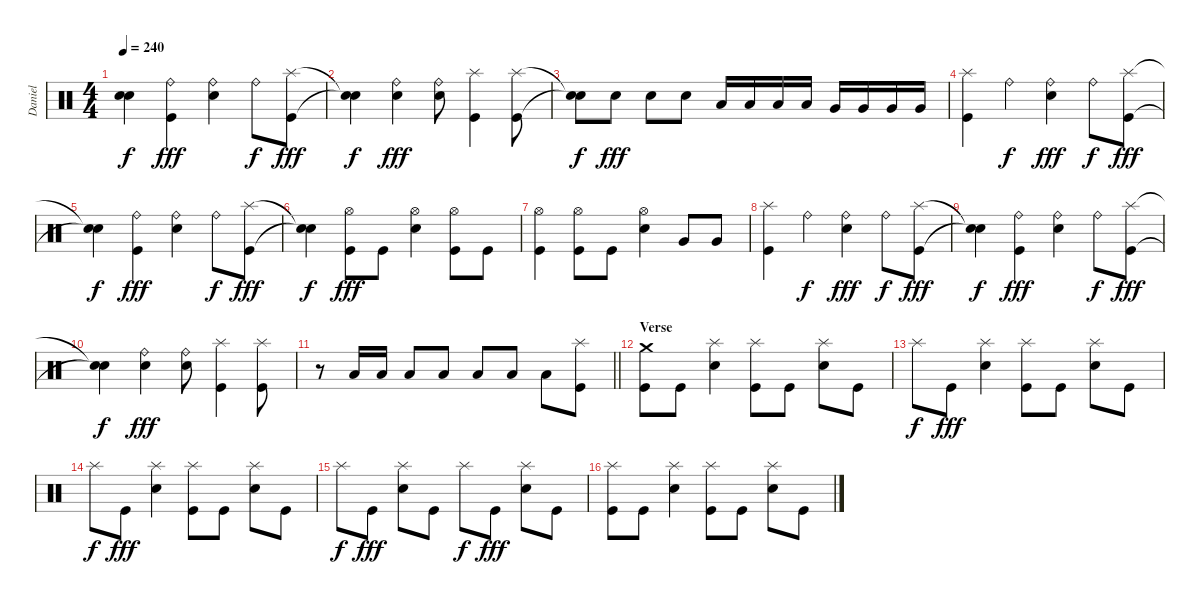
\track ("Daniel" "Daniel") {instrument percussion}
\staff {score}
\articulation defaults
\ts (4 4)
\tempo 240
\clef neutral
\ks c
("Snare (hit)"{t} "Snare (hit)"{t}).4{dy f} ("Kick (hit)" "Ride (bell)").4{dy fff} ("Electric Snare (hit)" "Ride (bell)").4 "Ride (bell)".8{dy f} ("Kick (hit)" "Splash (hit)").8{dy fff} |
("Snare (hit)"{t} "Snare (hit)"{t}).4{dy f} ("Electric Snare (hit)" "Ride (bell)").4{dy fff} ("Electric Snare (hit)" "Ride (bell)").8 ("Kick (hit)" "Splash (hit)").4 ("Kick (hit)" "Splash (hit)").8 |
("Snare (hit)"{t} "Snare (hit)"{t}).8{dy f} "Electric Snare (hit)".8{dy fff} "Electric Snare (hit)".8 "Electric Snare (hit)".8 "Low Tom (hit)".16 "Low Tom (hit)".16 "Low Tom (hit)".16 "Low Tom (hit)".16 "Very Low Tom (hit)".16 "Very Low Tom (hit)".16 "Very Low Tom (hit)".16 "Very Low Tom (hit)".16 |
("Kick (hit)" "Splash (hit)").4 "Ride (bell)".4{dy f} ("Electric Snare (hit)" "Ride (bell)").4{dy fff} "Ride (bell)".8{dy f} ("Kick (hit)" "Splash (hit)").8{dy fff} |
("Snare (hit)"{t} "Snare (hit)"{t}).4{dy f} ("Kick (hit)" "Ride (bell)").4{dy fff} ("Electric Snare (hit)" "Ride (bell)").4 "Ride (bell)".8{dy f} ("Kick (hit)" "Splash (hit)").8{dy fff} |
("Snare (hit)"{t} "Snare (hit)"{t}).4{dy f} ("Kick (hit)" "Hi-Hat (open)").8{dy fff} "Kick (hit)".8 ("Electric Snare (hit)" "Hi-Hat (open)").4 ("Kick (hit)" "Hi-Hat (open)").8 "Kick (hit)".8 |
("Kick (hit)" "Hi-Hat (open)").4 ("Kick (hit)" "Hi-Hat (open)").8 "Kick (hit)".8 ("Electric Snare (hit)" "Hi-Hat (open)").4 "Very Low Tom (hit)".8 "Very Low Tom (hit)".8 |
("Kick (hit)" "Splash (hit)").4 "Ride (bell)".4{dy f} ("Electric Snare (hit)" "Ride (bell)").4{dy fff} "Ride (bell)".8{dy f} ("Kick (hit)" "Splash (hit)").8{dy fff} |
("Snare (hit)"{t} "Snare (hit)"{t}).4{dy f} ("Kick (hit)" "Ride (bell)").4{dy fff} ("Electric Snare (hit)" "Ride (bell)").4 "Ride (bell)".8{dy f} ("Kick (hit)" "Splash (hit)").8{dy fff} |
("Snare (hit)"{t} "Snare (hit)"{t}).4{dy f} ("Electric Snare (hit)" "Ride (bell)").4{dy fff} ("Electric Snare (hit)" "Ride (bell)").8 ("Kick (hit)" "Splash (hit)").4 ("Kick (hit)" "Splash (hit)").8 |
\barLineRight lightlight
r.8 "Low Tom (hit)".16 "Low Tom (hit)".16 "Low Tom (hit)".8 "Low Tom (hit)".8 "Low Tom (hit)".8 "Low Floor Tom (hit)".8 "Low Floor Tom (hit)".8 ("Kick (hit)" "Splash (hit)").8 |
\section ("" "Verse")
("Kick (hit)" "Crash medium (hit)").8 "Kick (hit)".8 ("Electric Snare (hit)" "Splash (hit)").4 ("Kick (hit)" "Splash (hit)").8 "Kick (hit)".8 ("Electric Snare (hit)" "Splash (hit)").8 "Kick (hit)".8 |
"Splash (hit)".8{dy f} "Kick (hit)".8{dy fff} ("Electric Snare (hit)" "Splash (hit)").4 ("Kick (hit)" "Splash (hit)").8 "Kick (hit)".8 ("Electric Snare (hit)" "Splash (hit)").8 "Kick (hit)".8 |
"Splash (hit)".8{dy f} "Kick (hit)".8{dy fff} ("Electric Snare (hit)" "Splash (hit)").4 ("Kick (hit)" "Splash (hit)").8 "Kick (hit)".8 ("Electric Snare (hit)" "Splash (hit)").8 "Kick (hit)".8 |
"Splash (hit)".8{dy f} "Kick (hit)".8{dy fff} ("Electric Snare (hit)" "Splash (hit)").8 "Kick (hit)".8 "Splash (hit)".8{dy f} "Kick (hit)".8{dy fff} ("Electric Snare (hit)" "Splash (hit)").8 "Kick (hit)".8 |
("Kick (hit)" "Splash (hit)").8 "Kick (hit)".8 ("Electric Snare (hit)" "Splash (hit)").4 ("Kick (hit)" "Splash (hit)").8 "Kick (hit)".8 ("Electric Snare (hit)" "Splash (hit)").8 "Kick (hit)".8
